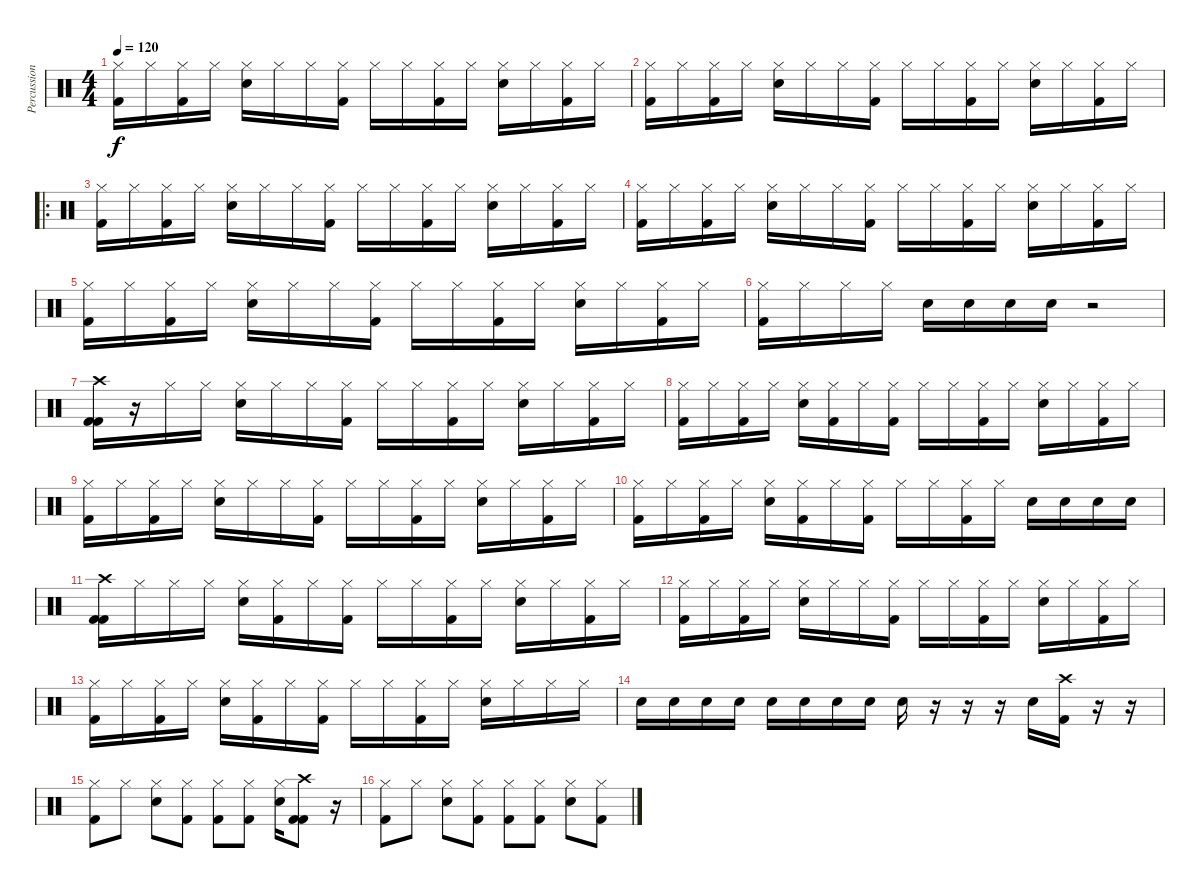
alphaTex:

\track ("Percussion" "Percussion") {instrument percussion}
\staff {score}
\articulation defaults
\ts (4 4)
\tempo 120
\clef neutral
\ks c
("Hi-Hat (closed)" "Kick (hit) 2").16{dy f} "Hi-Hat (closed)".16 ("Hi-Hat (closed)" "Kick (hit) 2").16 "Hi-Hat (closed)".16 ("Hi-Hat (closed)" "Snare (hit) 2").16 "Hi-Hat (closed)".16 "Hi-Hat (closed)".16 ("Hi-Hat (closed)" "Kick (hit) 2").16 "Hi-Hat (closed)".16 "Hi-Hat (closed)".16 ("Hi-Hat (closed)" "Kick (hit) 2").16 "Hi-Hat (closed)".16 ("Hi-Hat (closed)" "Snare (hit) 2").16 "Hi-Hat (closed)".16 ("Hi-Hat (closed)" "Kick (hit) 2").16 "Hi-Hat (closed)".16 |
("Hi-Hat (closed)" "Kick (hit) 2").16 "Hi-Hat (closed)".16 ("Hi-Hat (closed)" "Kick (hit) 2").16 "Hi-Hat (closed)".16 ("Hi-Hat (closed)" "Snare (hit) 2").16 "Hi-Hat (closed)".16 "Hi-Hat (closed)".16 ("Hi-Hat (closed)" "Kick (hit) 2").16 "Hi-Hat (closed)".16 "Hi-Hat (closed)".16 ("Hi-Hat (closed)" "Kick (hit) 2").16 "Hi-Hat (closed)".16 ("Hi-Hat (closed)" "Snare (hit) 2").16 "Hi-Hat (closed)".16 ("Hi-Hat (closed)" "Kick (hit) 2").16 "Hi-Hat (closed)".16 |
\ro
("Hi-Hat (closed)" "Kick (hit) 2").16 "Hi-Hat (closed)".16 ("Hi-Hat (closed)" "Kick (hit) 2").16 "Hi-Hat (closed)".16 ("Hi-Hat (closed)" "Snare (hit) 2").16 "Hi-Hat (closed)".16 "Hi-Hat (closed)".16 ("Hi-Hat (closed)" "Kick (hit) 2").16 "Hi-Hat (closed)".16 "Hi-Hat (closed)".16 ("Hi-Hat (closed)" "Kick (hit) 2").16 "Hi-Hat (closed)".16 ("Hi-Hat (closed)" "Snare (hit) 2").16 "Hi-Hat (closed)".16 ("Hi-Hat (closed)" "Kick (hit) 2").16 "Hi-Hat (closed)".16 |
("Hi-Hat (closed)" "Kick (hit) 2").16 "Hi-Hat (closed)".16 ("Hi-Hat (closed)" "Kick (hit) 2").16 "Hi-Hat (closed)".16 ("Hi-Hat (closed)" "Snare (hit) 2").16 "Hi-Hat (closed)".16 "Hi-Hat (closed)".16 ("Hi-Hat (closed)" "Kick (hit) 2").16 "Hi-Hat (closed)".16 "Hi-Hat (closed)".16 ("Hi-Hat (closed)" "Kick (hit) 2").16 "Hi-Hat (closed)".16 ("Hi-Hat (closed)" "Snare (hit) 2").16 "Hi-Hat (closed)".16 ("Hi-Hat (closed)" "Kick (hit) 2").16 "Hi-Hat (closed)".16 |
("Hi-Hat (closed)" "Kick (hit) 2").16 "Hi-Hat (closed)".16 ("Hi-Hat (closed)" "Kick (hit) 2").16 "Hi-Hat (closed)".16 ("Hi-Hat (closed)" "Snare (hit) 2").16 "Hi-Hat (closed)".16 "Hi-Hat (closed)".16 ("Hi-Hat (closed)" "Kick (hit) 2").16 "Hi-Hat (closed)".16 "Hi-Hat (closed)".16 ("Hi-Hat (closed)" "Kick (hit) 2").16 "Hi-Hat (closed)".16 ("Hi-Hat (closed)" "Snare (hit) 2").16 "Hi-Hat (closed)".16 ("Hi-Hat (closed)" "Kick (hit) 2").16 "Hi-Hat (closed)".16 |
("Hi-Hat (closed)" "Kick (hit) 2").16 "Hi-Hat (closed)".16 "Hi-Hat (closed)".16 "Hi-Hat (closed)".16 "Snare (hit) 2".16 "Snare (hit) 2".16 "Snare (hit) 2".16 "Snare (hit) 2".16 r.2 |
("Crash high (hit)" "Kick (hit) 2" "Kick (hit) 2").16 r.16 "Hi-Hat (closed)".16 "Hi-Hat (closed)".16 ("Hi-Hat (closed)" "Snare (hit) 2").16 "Hi-Hat (closed)".16 "Hi-Hat (closed)".16 ("Hi-Hat (closed)" "Kick (hit) 2").16 "Hi-Hat (closed)".16 "Hi-Hat (closed)".16 ("Hi-Hat (closed)" "Kick (hit) 2").16 "Hi-Hat (closed)".16 ("Hi-Hat (closed)" "Snare (hit) 2").16 "Hi-Hat (closed)".16 ("Hi-Hat (closed)" "Kick (hit) 2").16 "Hi-Hat (closed)".16 |
("Hi-Hat (closed)" "Kick (hit) 2").16 "Hi-Hat (closed)".16 ("Hi-Hat (closed)" "Kick (hit) 2").16 "Hi-Hat (closed)".16 ("Hi-Hat (closed)" "Snare (hit) 2").16 ("Hi-Hat (closed)" "Kick (hit) 2").16 "Hi-Hat (closed)".16 ("Hi-Hat (closed)" "Kick (hit) 2").16 "Hi-Hat (closed)".16 "Hi-Hat (closed)".16 ("Hi-Hat (closed)" "Kick (hit) 2").16 "Hi-Hat (closed)".16 ("Hi-Hat (closed)" "Snare (hit) 2").16 "Hi-Hat (closed)".16 ("Hi-Hat (closed)" "Kick (hit) 2").16 "Hi-Hat (closed)".16 |
("Hi-Hat (closed)" "Kick (hit) 2").16 "Hi-Hat (closed)".16 ("Hi-Hat (closed)" "Kick (hit) 2").16 "Hi-Hat (closed)".16 ("Hi-Hat (closed)" "Snare (hit) 2").16 "Hi-Hat (closed)".16 "Hi-Hat (closed)".16 ("Hi-Hat (closed)" "Kick (hit) 2").16 "Hi-Hat (closed)".16 "Hi-Hat (closed)".16 ("Hi-Hat (closed)" "Kick (hit) 2").16 "Hi-Hat (closed)".16 ("Hi-Hat (closed)" "Snare (hit) 2").16 "Hi-Hat (closed)".16 ("Hi-Hat (closed)" "Kick (hit) 2").16 "Hi-Hat (closed)".16 |
("Hi-Hat (closed)" "Kick (hit) 2").16 "Hi-Hat (closed)".16 ("Hi-Hat (closed)" "Kick (hit) 2").16 "Hi-Hat (closed)".16 ("Hi-Hat (closed)" "Snare (hit) 2").16 ("Hi-Hat (closed)" "Kick (hit) 2").16 "Hi-Hat (closed)".16 ("Hi-Hat (closed)" "Kick (hit) 2").16 "Hi-Hat (closed)".16 "Hi-Hat (closed)".16 ("Hi-Hat (closed)" "Kick (hit) 2").16 "Hi-Hat (closed)".16 "Snare (hit) 2".16 "Snare (hit) 2".16 "Snare (hit) 2".16 "Snare (hit) 2".16 |
("Crash high (hit)" "Kick (hit) 2" "Kick (hit) 2").16 "Hi-Hat (closed)".16 "Hi-Hat (closed)".16 "Hi-Hat (closed)".16 ("Hi-Hat (closed)" "Snare (hit) 2").16 ("Hi-Hat (closed)" "Kick (hit) 2").16 "Hi-Hat (closed)".16 ("Hi-Hat (closed)" "Kick (hit) 2").16 "Hi-Hat (closed)".16 "Hi-Hat (closed)".16 ("Hi-Hat (closed)" "Kick (hit) 2").16 "Hi-Hat (closed)".16 ("Hi-Hat (closed)" "Snare (hit) 2").16 "Hi-Hat (closed)".16 ("Hi-Hat (closed)" "Kick (hit) 2").16 "Hi-Hat (closed)".16 |
("Hi-Hat (closed)" "Kick (hit) 2").16 "Hi-Hat (closed)".16 ("Hi-Hat (closed)" "Kick (hit) 2").16 "Hi-Hat (closed)".16 ("Hi-Hat (closed)" "Snare (hit) 2").16 "Hi-Hat (closed)".16 "Hi-Hat (closed)".16 ("Hi-Hat (closed)" "Kick (hit) 2").16 "Hi-Hat (closed)".16 "Hi-Hat (closed)".16 ("Hi-Hat (closed)" "Kick (hit) 2").16 "Hi-Hat (closed)".16 ("Hi-Hat (closed)" "Snare (hit) 2").16 "Hi-Hat (closed)".16 ("Hi-Hat (closed)" "Kick (hit) 2").16 "Hi-Hat (closed)".16 |
("Hi-Hat (closed)" "Kick (hit) 2").16 "Hi-Hat (closed)".16 ("Hi-Hat (closed)" "Kick (hit) 2").16 "Hi-Hat (closed)".16 ("Hi-Hat (closed)" "Snare (hit) 2").16 ("Hi-Hat (closed)" "Kick (hit) 2").16 "Hi-Hat (closed)".16 ("Hi-Hat (closed)" "Kick (hit) 2").16 "Hi-Hat (closed)".16 "Hi-Hat (closed)".16 ("Hi-Hat (closed)" "Kick (hit) 2").16 "Hi-Hat (closed)".16 ("Hi-Hat (closed)" "Snare (hit) 2").16 "Hi-Hat (closed)".16 "Hi-Hat (closed)".16 "Hi-Hat (closed)".16 |
"Snare (hit) 2".16 "Snare (hit) 2".16 "Snare (hit) 2".16 "Snare (hit) 2".16 "Snare (hit) 2".16 "Snare (hit) 2".16 "Snare (hit) 2".16 "Snare (hit) 2".16 "Snare (hit) 2".16 r.16 r.16 r.16 "Electric Snare (hit)".16 ("Crash high (hit)" "Kick (hit) 2").16 r.16 r.16 |
("Hi-Hat (closed)" "Kick (hit) 2").8 "Hi-Hat (closed)".8 ("Hi-Hat (closed)" "Snare (hit) 2").8 ("Hi-Hat (closed)" "Kick (hit) 2").8 ("Hi-Hat (closed)" "Kick (hit) 2").8 ("Hi-Hat (closed)" "Kick (hit) 2").8 ("Hi-Hat (closed)" "Snare (hit) 2").16 ("Crash high (hit)" "Kick (hit) 2" "Kick (hit) 2").8 r.16 |
("Hi-Hat (closed)" "Kick (hit) 2").8 "Hi-Hat (closed)".8 ("Hi-Hat (closed)" "Snare (hit) 2").8 ("Hi-Hat (closed)" "Kick (hit) 2").8 ("Hi-Hat (closed)" "Kick (hit) 2").8 ("Hi-Hat (closed)" "Kick (hit) 2").8 ("Hi-Hat (closed)" "Snare (hit) 2").8 ("Hi-Hat (closed)" "Kick (hit) 2").8
